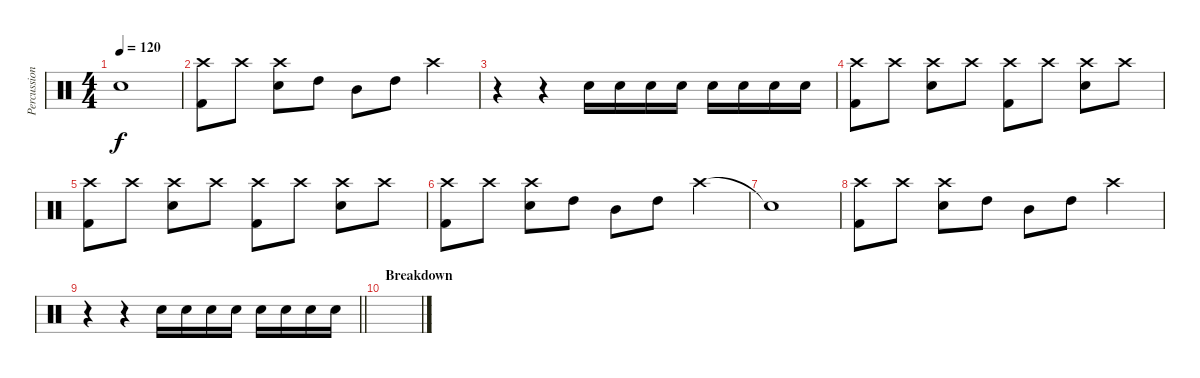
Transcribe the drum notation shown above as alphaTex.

\track ("Percussion" "Percussion") {instrument percussion}
\staff {score}
\articulation defaults
\ts (4 4)
\tempo 120
\clef neutral
\ks c "Snare (hit)"{t}.1{dy f}
|
("Crash high (hit)" "Kick (hit) 2").8 "Crash high (hit)".8 ("Crash high (hit)" "Snare (hit) 2").8 "High Tom (hit)".8 "Mid Tom (hit)".8 "High Tom (hit)".8 "Crash high (hit)".4 |
r.4 r.4 "Snare (hit) 2".16 "Snare (hit) 2".16 "Snare (hit) 2".16 "Snare (hit) 2".16 "Snare (hit) 2".16 "Snare (hit) 2".16 "Snare (hit) 2".16 "Snare (hit) 2".16 |
("Crash high (hit)" "Kick (hit) 2").8 "Crash high (hit)".8 ("Crash high (hit)" "Snare (hit) 2").8 "Crash high (hit)".8 ("Crash high (hit)" "Kick (hit) 2").8 "Crash high (hit)".8 ("Crash high (hit)" "Snare (hit) 2").8 "Crash high (hit)".8 |
("Crash high (hit)" "Kick (hit) 2").8 "Crash high (hit)".8 ("Crash high (hit)" "Snare (hit) 2").8 "Crash high (hit)".8 ("Crash high (hit)" "Kick (hit) 2").8 "Crash high (hit)".8 ("Crash high (hit)" "Snare (hit) 2").8 "Crash high (hit)".8 |
("Crash high (hit)" "Kick (hit) 2").8 "Crash high (hit)".8 ("Crash high (hit)" "Snare (hit) 2").8 "High Tom (hit)".8 "Mid Tom (hit)".8 "High Tom (hit)".8 "Crash high (hit)".4 |
"Snare (hit)"{t}.1 |
("Crash high (hit)" "Kick (hit) 2").8 "Crash high (hit)".8 ("Crash high (hit)" "Snare (hit) 2").8 "High Tom (hit)".8 "Mid Tom (hit)".8 "High Tom (hit)".8 "Crash high (hit)".4 |
\barLineRight lightlight
r.4 r.4 "Snare (hit) 2".16 "Snare (hit) 2".16 "Snare (hit) 2".16 "Snare (hit) 2".16 "Snare (hit) 2".16 "Snare (hit) 2".16 "Snare (hit) 2".16 "Snare (hit) 2".16 |
\section ("" "Breakdown")
